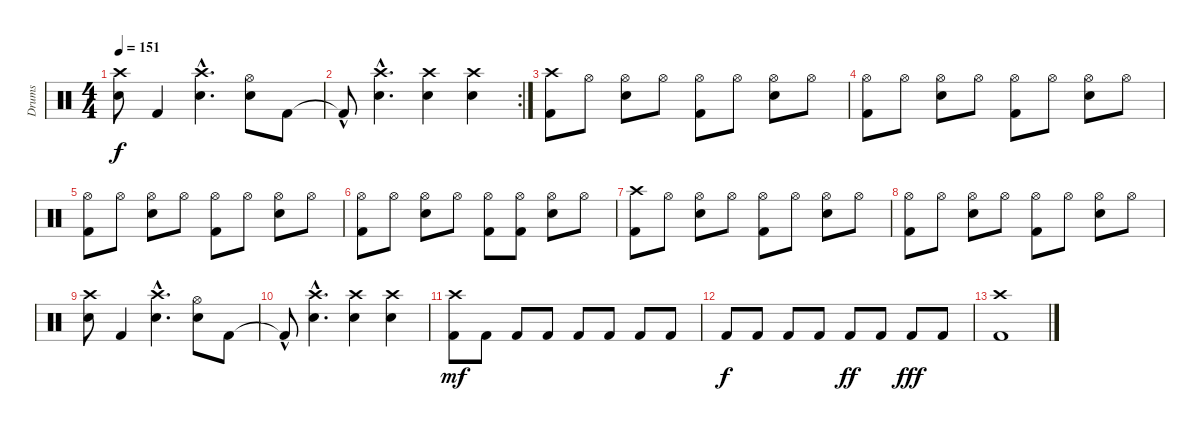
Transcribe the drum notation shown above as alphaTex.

\track ("Drums" "Drums") {instrument percussion}
\staff {score}
\articulation defaults
\ts (4 4)
\tempo 151
\clef neutral
\ks c
("Crash high (hit)" "Electric Snare (hit)").8{dy f} "Kick (hit) 2".4 ("Crash high (hit)"{hac} "Electric Snare (hit)"{hac}).4{d} ("Hi-Hat (open)" "Electric Snare (hit)").8 "Kick (hit) 2".8 |
\rc 2 "Kick (hit) 2"{hac t}.8
("Crash high (hit)"{hac} "Electric Snare (hit)"{hac}).4{d} ("Crash high (hit)" "Electric Snare (hit)").4 ("Crash high (hit)" "Electric Snare (hit)").4 |
("Crash high (hit)" "Kick (hit) 2").8 "Hi-Hat (open)".8 ("Hi-Hat (open)" "Electric Snare (hit)").8 "Hi-Hat (open)".8 ("Hi-Hat (open)" "Kick (hit) 2").8 "Hi-Hat (open)".8 ("Hi-Hat (open)" "Electric Snare (hit)").8 "Hi-Hat (open)".8 |
("Hi-Hat (open)" "Kick (hit) 2").8 "Hi-Hat (open)".8 ("Hi-Hat (open)" "Electric Snare (hit)").8 "Hi-Hat (open)".8 ("Hi-Hat (open)" "Kick (hit) 2").8 "Hi-Hat (open)".8 ("Hi-Hat (open)" "Electric Snare (hit)").8 "Hi-Hat (open)".8 |
("Hi-Hat (open)" "Kick (hit) 2").8 "Hi-Hat (open)".8 ("Hi-Hat (open)" "Electric Snare (hit)").8 "Hi-Hat (open)".8 ("Hi-Hat (open)" "Kick (hit) 2").8 "Hi-Hat (open)".8 ("Hi-Hat (open)" "Electric Snare (hit)").8 "Hi-Hat (open)".8 |
("Hi-Hat (open)" "Kick (hit) 2").8 "Hi-Hat (open)".8 ("Hi-Hat (open)" "Electric Snare (hit)").8 "Hi-Hat (open)".8 ("Hi-Hat (open)" "Kick (hit) 2").8 ("Hi-Hat (open)" "Kick (hit) 2").8 ("Hi-Hat (open)" "Electric Snare (hit)").8 "Hi-Hat (open)".8 |
("Crash high (hit)" "Kick (hit) 2").8 "Hi-Hat (open)".8 ("Hi-Hat (open)" "Electric Snare (hit)").8 "Hi-Hat (open)".8 ("Hi-Hat (open)" "Kick (hit) 2").8 "Hi-Hat (open)".8 ("Hi-Hat (open)" "Electric Snare (hit)").8 "Hi-Hat (open)".8 |
("Hi-Hat (open)" "Kick (hit) 2").8 "Hi-Hat (open)".8 ("Hi-Hat (open)" "Electric Snare (hit)").8 "Hi-Hat (open)".8 ("Hi-Hat (open)" "Kick (hit) 2").8 "Hi-Hat (open)".8 ("Hi-Hat (open)" "Electric Snare (hit)").8 "Hi-Hat (open)".8 |
("Crash high (hit)" "Electric Snare (hit)").8 "Kick (hit) 2".4 ("Crash high (hit)"{hac} "Electric Snare (hit)"{hac}).4{d} ("Hi-Hat (open)" "Electric Snare (hit)").8 "Kick (hit) 2".8 |
"Kick (hit) 2"{hac t}.8 ("Crash high (hit)"{hac} "Electric Snare (hit)"{hac}).4{d} ("Crash high (hit)" "Electric Snare (hit)").4 ("Crash high (hit)" "Electric Snare (hit)").4 |
("Crash high (hit)" "Kick (hit) 2").8{dy mf volume 16} "Kick (hit) 2".8 "Kick (hit) 2".8 "Kick (hit) 2".8 "Kick (hit) 2".8 "Kick (hit) 2".8 "Kick (hit) 2".8 "Kick (hit) 2".8 |
"Kick (hit) 2".8{dy f} "Kick (hit) 2".8 "Kick (hit) 2".8 "Kick (hit) 2".8 "Kick (hit) 2".8{dy ff} "Kick (hit) 2".8 "Kick (hit) 2".8{dy fff} "Kick (hit) 2".8 |
("Crash high (hit)" "Kick (hit) 2").1
